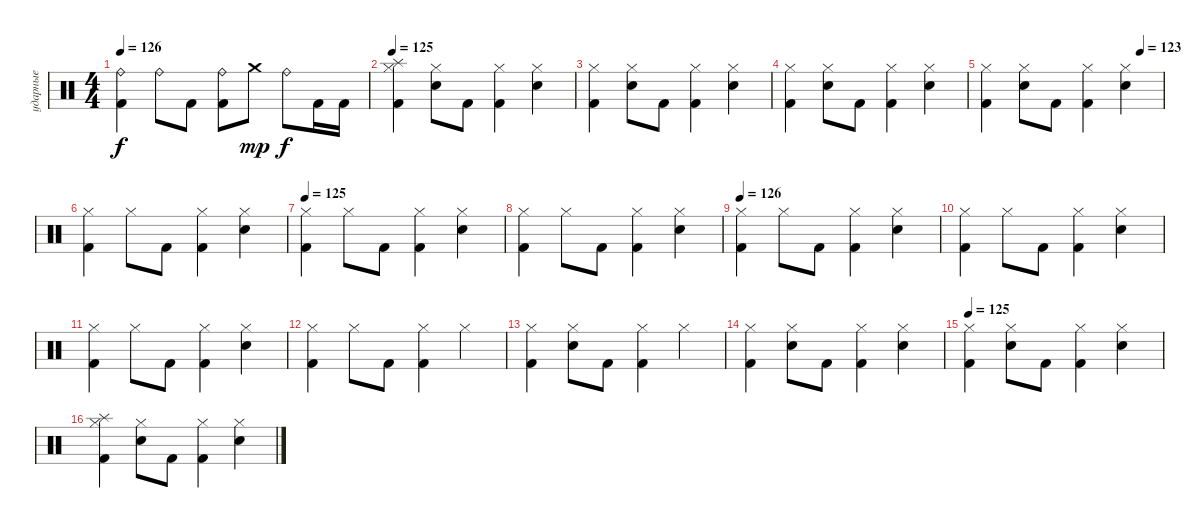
\track ("ударные" "ударные") {instrument percussion}
\staff {score}
\articulation defaults
\ts (4 4)
\tempo 126
\clef neutral
\ks c
("Ride (bell)" "Kick (hit) 2").4{dy f} "Ride (bell)".8 "Kick (hit) 2".8 ("Ride (bell)" "Kick (hit) 2").8 "Crash medium (hit)".8{dy mp} "Ride (bell)".8{dy f} "Kick (hit) 2".16 "Kick (hit) 2".16 |
\tempo 125
("Hi-Hat (closed)" "Splash (hit)" "Kick (hit) 2").4 ("Electric Snare (hit)" "Hi-Hat (closed)").8 "Kick (hit) 2".8 ("Hi-Hat (closed)" "Kick (hit) 2").4 ("Electric Snare (hit)" "Hi-Hat (closed)").4 |
("Hi-Hat (closed)" "Kick (hit) 2").4 ("Hi-Hat (closed)" "Electric Snare (hit)").8 "Kick (hit) 2".8 ("Hi-Hat (closed)" "Kick (hit) 2").4 ("Hi-Hat (closed)" "Electric Snare (hit)").4 |
("Hi-Hat (closed)" "Kick (hit) 2").4 ("Hi-Hat (closed)" "Electric Snare (hit)").8 "Kick (hit) 2".8 ("Hi-Hat (closed)" "Kick (hit) 2").4 ("Hi-Hat (closed)" "Electric Snare (hit)").4 |
\tempo (123 0.875)
("Hi-Hat (closed)" "Kick (hit) 2").4 ("Hi-Hat (closed)" "Electric Snare (hit)").8 "Kick (hit) 2".8 ("Hi-Hat (closed)" "Kick (hit) 2").4 ("Hi-Hat (closed)" "Electric Snare (hit)").4 |
("Hi-Hat (closed)" "Kick (hit) 2").4 "Hi-Hat (closed)".8 "Kick (hit) 2".8 ("Hi-Hat (closed)" "Kick (hit) 2").4 ("Hi-Hat (closed)" "Electric Snare (hit)").4 |
\tempo 125
("Hi-Hat (closed)" "Kick (hit) 2").4 "Hi-Hat (closed)".8 "Kick (hit) 2".8 ("Hi-Hat (closed)" "Kick (hit) 2").4 ("Hi-Hat (closed)" "Electric Snare (hit)").4 |
("Hi-Hat (closed)" "Kick (hit) 2").4 "Hi-Hat (closed)".8 "Kick (hit) 2".8 ("Hi-Hat (closed)" "Kick (hit) 2").4 ("Hi-Hat (closed)" "Electric Snare (hit)").4 |
\tempo 126
("Hi-Hat (closed)" "Kick (hit) 2").4 "Hi-Hat (closed)".8 "Kick (hit) 2".8 ("Hi-Hat (closed)" "Kick (hit) 2").4 ("Hi-Hat (closed)" "Electric Snare (hit)").4 |
("Hi-Hat (closed)" "Kick (hit) 2").4 "Hi-Hat (closed)".8 "Kick (hit) 2".8 ("Hi-Hat (closed)" "Kick (hit) 2").4 ("Hi-Hat (closed)" "Electric Snare (hit)").4 |
("Hi-Hat (closed)" "Kick (hit) 2").4 "Hi-Hat (closed)".8 "Kick (hit) 2".8 ("Hi-Hat (closed)" "Kick (hit) 2").4 ("Hi-Hat (closed)" "Electric Snare (hit)").4 |
("Hi-Hat (closed)" "Kick (hit) 2").4 "Hi-Hat (closed)".8 "Kick (hit) 2".8 ("Hi-Hat (closed)" "Kick (hit) 2").4 "Hi-Hat (closed)".4 |
("Hi-Hat (closed)" "Kick (hit) 2").4 ("Hi-Hat (closed)" "Electric Snare (hit)").8 "Kick (hit) 2".8 ("Hi-Hat (closed)" "Kick (hit) 2").4 "Hi-Hat (closed)".4 |
("Hi-Hat (closed)" "Kick (hit) 2").4 ("Hi-Hat (closed)" "Electric Snare (hit)").8 "Kick (hit) 2".8 ("Hi-Hat (closed)" "Kick (hit) 2").4 ("Hi-Hat (closed)" "Electric Snare (hit)").4 |
\tempo 125
("Hi-Hat (closed)" "Kick (hit) 2").4 ("Hi-Hat (closed)" "Electric Snare (hit)").8 "Kick (hit) 2".8 ("Hi-Hat (closed)" "Kick (hit) 2").4 ("Hi-Hat (closed)" "Electric Snare (hit)").4 |
("Splash (hit)" "Hi-Hat (closed)" "Kick (hit) 2").4 ("Hi-Hat (closed)" "Electric Snare (hit)").8 "Kick (hit) 2".8 ("Kick (hit) 2" "Hi-Hat (closed)").4 ("Electric Snare (hit)" "Hi-Hat (closed)").4
